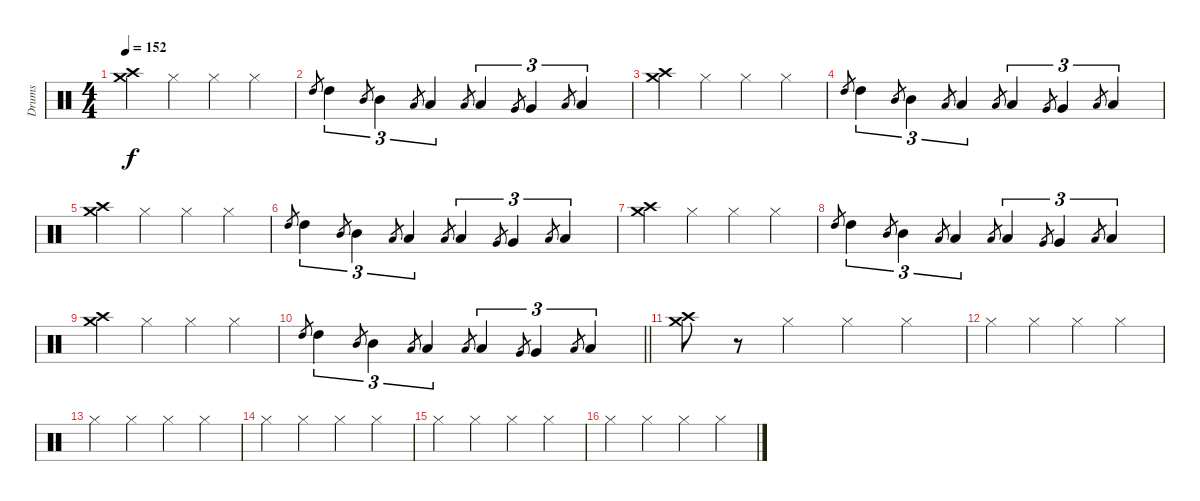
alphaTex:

\track ("Drums" "Drums") {instrument percussion}
\staff {score}
\articulation defaults
\ts (4 4)
\tempo 152
\clef neutral
\ks c
("Crash medium (hit)" "Crash high (hit)").4{dy f} "Hi-Hat (closed)".4 "Hi-Hat (closed)".4 "Hi-Hat (closed)".4 |
"High Tom (hit)".8{gr} "High Tom (hit)".4{tu (3 2)} "Mid Tom (hit)".8{gr} "Mid Tom (hit)".4{tu (3 2)} "Low Tom (hit)".8{gr} "Low Tom (hit)".4{tu (3 2)} "Low Tom (hit)".8{gr} "Low Tom (hit)".4{tu (3 2)} "Very Low Tom (hit)".8{gr} "Very Low Tom (hit)".4{tu (3 2)} "Low Floor Tom (hit)".8{gr} "Low Floor Tom (hit)".4{tu (3 2)} |
("Crash medium (hit)" "Crash high (hit)").4 "Hi-Hat (closed)".4 "Hi-Hat (closed)".4 "Hi-Hat (closed)".4 |
"High Tom (hit)".8{gr} "High Tom (hit)".4{tu (3 2)} "Mid Tom (hit)".8{gr} "Mid Tom (hit)".4{tu (3 2)} "Low Tom (hit)".8{gr} "Low Tom (hit)".4{tu (3 2)} "Low Tom (hit)".8{gr} "Low Tom (hit)".4{tu (3 2)} "Very Low Tom (hit)".8{gr} "Very Low Tom (hit)".4{tu (3 2)} "Low Floor Tom (hit)".8{gr} "Low Floor Tom (hit)".4{tu (3 2)} |
("Crash medium (hit)" "Crash high (hit)").4 "Hi-Hat (closed)".4 "Hi-Hat (closed)".4 "Hi-Hat (closed)".4 |
"High Tom (hit)".8{gr} "High Tom (hit)".4{tu (3 2)} "Mid Tom (hit)".8{gr} "Mid Tom (hit)".4{tu (3 2)} "Low Tom (hit)".8{gr} "Low Tom (hit)".4{tu (3 2)} "Low Tom (hit)".8{gr} "Low Tom (hit)".4{tu (3 2)} "Very Low Tom (hit)".8{gr} "Very Low Tom (hit)".4{tu (3 2)} "Low Floor Tom (hit)".8{gr} "Low Floor Tom (hit)".4{tu (3 2)} |
("Crash medium (hit)" "Crash high (hit)").4 "Hi-Hat (closed)".4 "Hi-Hat (closed)".4 "Hi-Hat (closed)".4 |
"High Tom (hit)".8{gr} "High Tom (hit)".4{tu (3 2)} "Mid Tom (hit)".8{gr} "Mid Tom (hit)".4{tu (3 2)} "Low Tom (hit)".8{gr} "Low Tom (hit)".4{tu (3 2)} "Low Tom (hit)".8{gr} "Low Tom (hit)".4{tu (3 2)} "Very Low Tom (hit)".8{gr} "Very Low Tom (hit)".4{tu (3 2)} "Low Floor Tom (hit)".8{gr} "Low Floor Tom (hit)".4{tu (3 2)} |
("Crash medium (hit)" "Crash high (hit)").4 "Hi-Hat (closed)".4 "Hi-Hat (closed)".4 "Hi-Hat (closed)".4 |
\barLineRight lightlight "High Tom (hit)".8{gr} "High Tom (hit)".4{tu (3 2)} "Mid Tom (hit)".8{gr} "Mid Tom (hit)".4{tu (3 2)} "Low Tom (hit)".8{gr} "Low Tom (hit)".4{tu (3 2)} "Low Tom (hit)".8{gr} "Low Tom (hit)".4{tu (3 2)} "Very Low Tom (hit)".8{gr} "Very Low Tom (hit)".4{tu (3 2)} "Low Floor Tom (hit)".8{gr} "Low Floor Tom (hit)".4{tu (3 2)}
|
("Crash medium (hit)" "Crash high (hit)").8 r.8 "Hi-Hat (closed)".4 "Hi-Hat (closed)".4 "Hi-Hat (closed)".4 |
"Hi-Hat (closed)".4 "Hi-Hat (closed)".4 "Hi-Hat (closed)".4 "Hi-Hat (closed)".4 |
"Hi-Hat (closed)".4 "Hi-Hat (closed)".4 "Hi-Hat (closed)".4 "Hi-Hat (closed)".4 |
"Hi-Hat (closed)".4 "Hi-Hat (closed)".4 "Hi-Hat (closed)".4 "Hi-Hat (closed)".4 |
"Hi-Hat (closed)".4 "Hi-Hat (closed)".4 "Hi-Hat (closed)".4 "Hi-Hat (closed)".4 |
"Hi-Hat (closed)".4 "Hi-Hat (closed)".4 "Hi-Hat (closed)".4 "Hi-Hat (closed)".4
